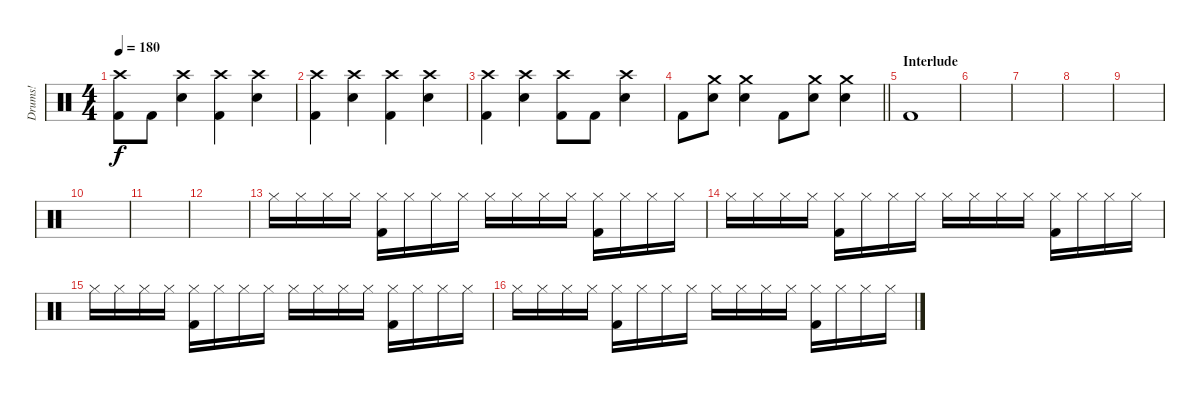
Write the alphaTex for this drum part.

\track ("Drums!" "Drums!") {instrument percussion}
\staff {score}
\articulation defaults
\ts (4 4)
\tempo 180
\clef neutral
\ks c
("Crash high (hit)" "Kick (hit) 2").8{dy f} "Kick (hit) 2".8 ("Crash high (hit)" "Electric Snare (hit)").4 ("Crash high (hit)" "Kick (hit) 2").4 ("Crash high (hit)" "Electric Snare (hit)").4 |
("Crash high (hit)" "Kick (hit) 2").4 ("Crash high (hit)" "Electric Snare (hit)").4 ("Crash high (hit)" "Kick (hit) 2").4 ("Crash high (hit)" "Electric Snare (hit)").4 |
("Crash high (hit)" "Kick (hit) 2").4 ("Crash high (hit)" "Electric Snare (hit)").4 ("Crash high (hit)" "Kick (hit) 2").8 "Kick (hit) 2".8 ("Crash high (hit)" "Electric Snare (hit)").4 |
\barLineRight lightlight "Kick (hit) 2".8
("Crash medium (hit)" "Electric Snare (hit)").8 ("Crash medium (hit)" "Electric Snare (hit)").4 "Kick (hit) 2".8 ("Crash medium (hit)" "Electric Snare (hit)").8 ("Crash medium (hit)" "Electric Snare (hit)").4 |
\section ("" "Interlude")
"Kick (hit) 2".1 |
|
|
|
|
|
|
|
"Hi-Hat (closed)".16 "Hi-Hat (closed)".16 "Hi-Hat (closed)".16 "Hi-Hat (closed)".16 ("Hi-Hat (closed)" "Kick (hit) 2").16 "Hi-Hat (closed)".16 "Hi-Hat (closed)".16 "Hi-Hat (closed)".16 "Hi-Hat (closed)".16 "Hi-Hat (closed)".16 "Hi-Hat (closed)".16 "Hi-Hat (closed)".16 ("Hi-Hat (closed)" "Kick (hit) 2").16 "Hi-Hat (closed)".16 "Hi-Hat (closed)".16 "Hi-Hat (closed)".16 |
"Hi-Hat (closed)".16 "Hi-Hat (closed)".16 "Hi-Hat (closed)".16 "Hi-Hat (closed)".16 ("Hi-Hat (closed)" "Kick (hit) 2").16 "Hi-Hat (closed)".16 "Hi-Hat (closed)".16 "Hi-Hat (closed)".16 "Hi-Hat (closed)".16 "Hi-Hat (closed)".16 "Hi-Hat (closed)".16 "Hi-Hat (closed)".16 ("Hi-Hat (closed)" "Kick (hit) 2").16 "Hi-Hat (closed)".16 "Hi-Hat (closed)".16 "Hi-Hat (closed)".16 |
"Hi-Hat (closed)".16 "Hi-Hat (closed)".16 "Hi-Hat (closed)".16 "Hi-Hat (closed)".16 ("Hi-Hat (closed)" "Kick (hit) 2").16 "Hi-Hat (closed)".16 "Hi-Hat (closed)".16 "Hi-Hat (closed)".16 "Hi-Hat (closed)".16 "Hi-Hat (closed)".16 "Hi-Hat (closed)".16 "Hi-Hat (closed)".16 ("Hi-Hat (closed)" "Kick (hit) 2").16 "Hi-Hat (closed)".16 "Hi-Hat (closed)".16 "Hi-Hat (closed)".16 |
"Hi-Hat (closed)".16 "Hi-Hat (closed)".16 "Hi-Hat (closed)".16 "Hi-Hat (closed)".16 ("Hi-Hat (closed)" "Kick (hit) 2").16 "Hi-Hat (closed)".16 "Hi-Hat (closed)".16 "Hi-Hat (closed)".16 "Hi-Hat (closed)".16 "Hi-Hat (closed)".16 "Hi-Hat (closed)".16 "Hi-Hat (closed)".16 ("Hi-Hat (closed)" "Kick (hit) 2").16 "Hi-Hat (closed)".16 "Hi-Hat (closed)".16 "Hi-Hat (closed)".16
